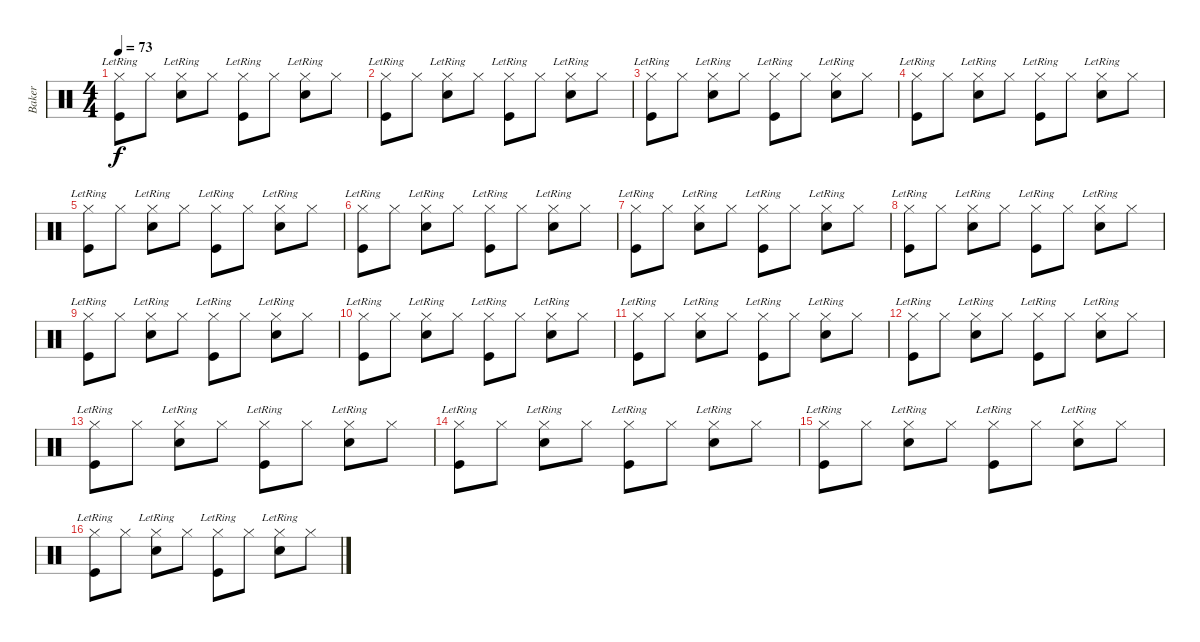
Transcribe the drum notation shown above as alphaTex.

\track ("Baker" "Baker") {instrument percussion}
\staff {score}
\articulation defaults
\ts (4 4)
\tempo 73
\clef neutral
\ks c
("Hi-Hat (closed)" "Kick (hit)"{lr}).8{dy f} "Hi-Hat (closed)".8 ("Hi-Hat (closed)" "Electric Snare (hit)"{lr}).8 "Hi-Hat (closed)".8 ("Hi-Hat (closed)" "Kick (hit)"{lr}).8 "Hi-Hat (closed)".8 ("Hi-Hat (closed)" "Electric Snare (hit)"{lr}).8 "Hi-Hat (closed)".8 |
("Hi-Hat (closed)" "Kick (hit)"{lr}).8 "Hi-Hat (closed)".8 ("Hi-Hat (closed)" "Electric Snare (hit)"{lr}).8 "Hi-Hat (closed)".8 ("Hi-Hat (closed)" "Kick (hit)"{lr}).8 "Hi-Hat (closed)".8 ("Hi-Hat (closed)" "Electric Snare (hit)"{lr}).8 "Hi-Hat (closed)".8 |
("Hi-Hat (closed)" "Kick (hit)"{lr}).8 "Hi-Hat (closed)".8 ("Hi-Hat (closed)" "Electric Snare (hit)"{lr}).8 "Hi-Hat (closed)".8 ("Hi-Hat (closed)" "Kick (hit)"{lr}).8 "Hi-Hat (closed)".8 ("Hi-Hat (closed)" "Electric Snare (hit)"{lr}).8 "Hi-Hat (closed)".8 |
("Hi-Hat (closed)" "Kick (hit)"{lr}).8 "Hi-Hat (closed)".8 ("Hi-Hat (closed)" "Electric Snare (hit)"{lr}).8 "Hi-Hat (closed)".8 ("Hi-Hat (closed)" "Kick (hit)"{lr}).8 "Hi-Hat (closed)".8 ("Hi-Hat (closed)" "Electric Snare (hit)"{lr}).8 "Hi-Hat (closed)".8 |
("Hi-Hat (closed)" "Kick (hit)"{lr}).8 "Hi-Hat (closed)".8 ("Hi-Hat (closed)" "Electric Snare (hit)"{lr}).8 "Hi-Hat (closed)".8 ("Hi-Hat (closed)" "Kick (hit)"{lr}).8 "Hi-Hat (closed)".8 ("Hi-Hat (closed)" "Electric Snare (hit)"{lr}).8 "Hi-Hat (closed)".8 |
("Hi-Hat (closed)" "Kick (hit)"{lr}).8 "Hi-Hat (closed)".8 ("Hi-Hat (closed)" "Electric Snare (hit)"{lr}).8 "Hi-Hat (closed)".8 ("Hi-Hat (closed)" "Kick (hit)"{lr}).8 "Hi-Hat (closed)".8 ("Hi-Hat (closed)" "Electric Snare (hit)"{lr}).8 "Hi-Hat (closed)".8 |
("Hi-Hat (closed)" "Kick (hit)"{lr}).8 "Hi-Hat (closed)".8 ("Hi-Hat (closed)" "Electric Snare (hit)"{lr}).8 "Hi-Hat (closed)".8 ("Hi-Hat (closed)" "Kick (hit)"{lr}).8 "Hi-Hat (closed)".8 ("Hi-Hat (closed)" "Electric Snare (hit)"{lr}).8 "Hi-Hat (closed)".8 |
("Hi-Hat (closed)" "Kick (hit)"{lr}).8 "Hi-Hat (closed)".8 ("Hi-Hat (closed)" "Electric Snare (hit)"{lr}).8 "Hi-Hat (closed)".8 ("Hi-Hat (closed)" "Kick (hit)"{lr}).8 "Hi-Hat (closed)".8 ("Hi-Hat (closed)" "Electric Snare (hit)"{lr}).8 "Hi-Hat (closed)".8 |
("Hi-Hat (closed)" "Kick (hit)"{lr}).8 "Hi-Hat (closed)".8 ("Hi-Hat (closed)" "Electric Snare (hit)"{lr}).8 "Hi-Hat (closed)".8 ("Hi-Hat (closed)" "Kick (hit)"{lr}).8 "Hi-Hat (closed)".8 ("Hi-Hat (closed)" "Electric Snare (hit)"{lr}).8 "Hi-Hat (closed)".8 |
("Hi-Hat (closed)" "Kick (hit)"{lr}).8 "Hi-Hat (closed)".8 ("Hi-Hat (closed)" "Electric Snare (hit)"{lr}).8 "Hi-Hat (closed)".8 ("Hi-Hat (closed)" "Kick (hit)"{lr}).8 "Hi-Hat (closed)".8 ("Hi-Hat (closed)" "Electric Snare (hit)"{lr}).8 "Hi-Hat (closed)".8 |
("Hi-Hat (closed)" "Kick (hit)"{lr}).8 "Hi-Hat (closed)".8 ("Hi-Hat (closed)" "Electric Snare (hit)"{lr}).8 "Hi-Hat (closed)".8 ("Hi-Hat (closed)" "Kick (hit)"{lr}).8 "Hi-Hat (closed)".8 ("Hi-Hat (closed)" "Electric Snare (hit)"{lr}).8 "Hi-Hat (closed)".8 |
("Hi-Hat (closed)" "Kick (hit)"{lr}).8 "Hi-Hat (closed)".8 ("Hi-Hat (closed)" "Electric Snare (hit)"{lr}).8 "Hi-Hat (closed)".8 ("Hi-Hat (closed)" "Kick (hit)"{lr}).8 "Hi-Hat (closed)".8 ("Hi-Hat (closed)" "Electric Snare (hit)"{lr}).8 "Hi-Hat (closed)".8 |
("Hi-Hat (closed)" "Kick (hit)"{lr}).8 "Hi-Hat (closed)".8 ("Hi-Hat (closed)" "Electric Snare (hit)"{lr}).8 "Hi-Hat (closed)".8 ("Hi-Hat (closed)" "Kick (hit)"{lr}).8 "Hi-Hat (closed)".8 ("Hi-Hat (closed)" "Electric Snare (hit)"{lr}).8 "Hi-Hat (closed)".8 |
("Hi-Hat (closed)" "Kick (hit)"{lr}).8 "Hi-Hat (closed)".8 ("Hi-Hat (closed)" "Electric Snare (hit)"{lr}).8 "Hi-Hat (closed)".8 ("Hi-Hat (closed)" "Kick (hit)"{lr}).8 "Hi-Hat (closed)".8 ("Hi-Hat (closed)" "Electric Snare (hit)"{lr}).8 "Hi-Hat (closed)".8 |
("Hi-Hat (closed)" "Kick (hit)"{lr}).8 "Hi-Hat (closed)".8 ("Hi-Hat (closed)" "Electric Snare (hit)"{lr}).8 "Hi-Hat (closed)".8 ("Hi-Hat (closed)" "Kick (hit)"{lr}).8 "Hi-Hat (closed)".8 ("Hi-Hat (closed)" "Electric Snare (hit)"{lr}).8 "Hi-Hat (closed)".8 |
("Hi-Hat (closed)" "Kick (hit)"{lr}).8 "Hi-Hat (closed)".8 ("Hi-Hat (closed)" "Electric Snare (hit)"{lr}).8 "Hi-Hat (closed)".8 ("Hi-Hat (closed)" "Kick (hit)"{lr}).8 "Hi-Hat (closed)".8 ("Hi-Hat (closed)" "Electric Snare (hit)"{lr}).8 "Hi-Hat (closed)".8
